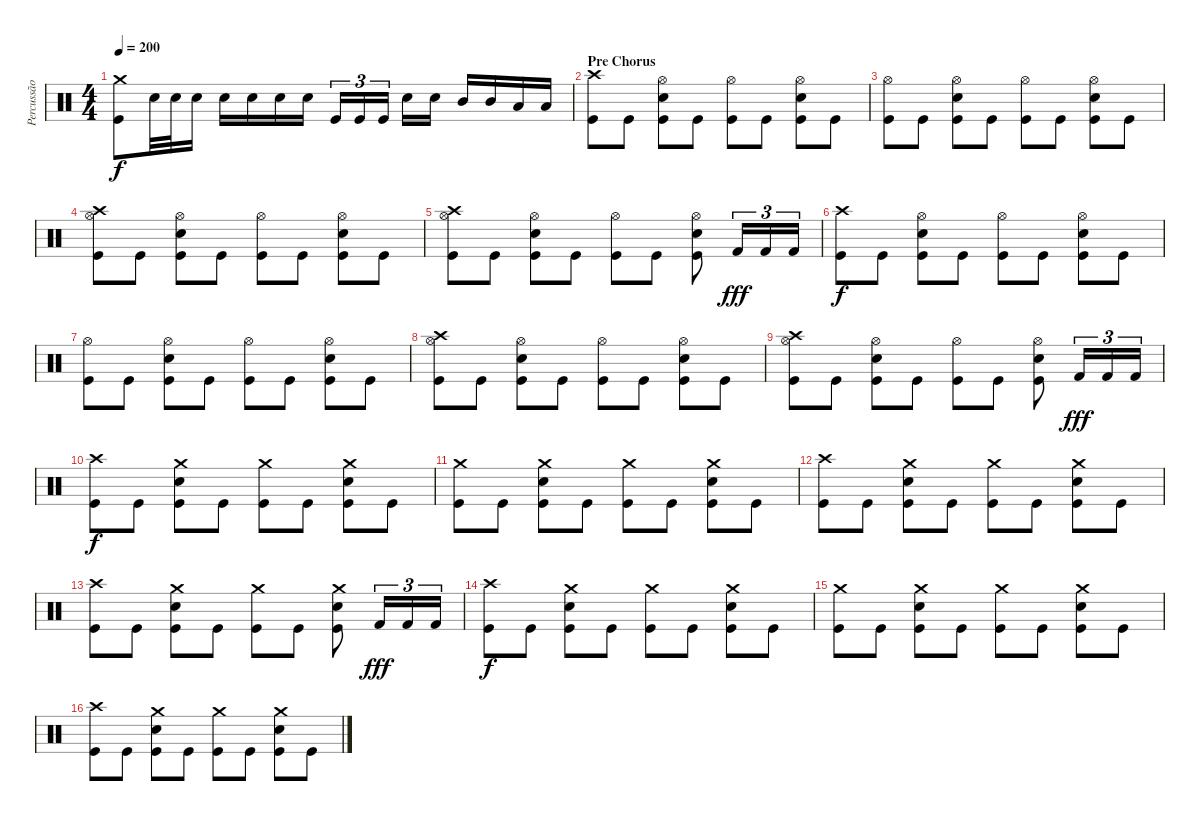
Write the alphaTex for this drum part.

\track ("Percussão" "Percussão") {instrument percussion}
\staff {score}
\articulation defaults
\ts (4 4)
\tempo 200
\clef neutral
\ks c
("Crash medium (hit)" "Kick (hit)").8{dy f} "Electric Snare (hit)".32 "Electric Snare (hit)".32 "Electric Snare (hit)".16 "Electric Snare (hit)".16 "Electric Snare (hit)".16 "Electric Snare (hit)".16 "Electric Snare (hit)".16 "Kick (hit)".16{tu (3 2)} "Kick (hit)".16{tu (3 2)} "Kick (hit)".16{tu (3 2)} "Electric Snare (hit)".16 "Electric Snare (hit)".16 "Mid Tom (hit)".16 "Mid Tom (hit)".16 "Low Tom (hit)".16 "Low Tom (hit)".16 |
\section ("" "Pre Chorus")
("Crash high (hit)" "Kick (hit)").8 "Kick (hit)".8 ("Hi-Hat (open)" "Electric Snare (hit)" "Kick (hit)").8 "Kick (hit)".8 ("Hi-Hat (open)" "Kick (hit)").8 "Kick (hit)".8 ("Hi-Hat (open)" "Electric Snare (hit)" "Kick (hit)").8 "Kick (hit)".8 |
("Hi-Hat (open)" "Kick (hit)").8 "Kick (hit)".8 ("Hi-Hat (open)" "Electric Snare (hit)" "Kick (hit)").8 "Kick (hit)".8 ("Hi-Hat (open)" "Kick (hit)").8 "Kick (hit)".8 ("Hi-Hat (open)" "Electric Snare (hit)" "Kick (hit)").8 "Kick (hit)".8 |
("Crash high (hit)" "Hi-Hat (open)" "Kick (hit)").8 "Kick (hit)".8 ("Hi-Hat (open)" "Electric Snare (hit)" "Kick (hit)").8 "Kick (hit)".8 ("Hi-Hat (open)" "Kick (hit)").8 "Kick (hit)".8 ("Hi-Hat (open)" "Electric Snare (hit)" "Kick (hit)").8 "Kick (hit)".8 |
("Crash high (hit)" "Hi-Hat (open)" "Kick (hit)").8 "Kick (hit)".8 ("Hi-Hat (open)" "Electric Snare (hit)" "Kick (hit)").8 "Kick (hit)".8 ("Hi-Hat (open)" "Kick (hit)").8 "Kick (hit)".8 ("Hi-Hat (open)" "Electric Snare (hit)" "Kick (hit)").8 "Kick (hit) 2".16{tu (3 2) dy fff} "Kick (hit) 2".16{tu (3 2)} "Kick (hit) 2".16{tu (3 2)} |
("Crash high (hit)" "Kick (hit)").8{dy f} "Kick (hit)".8 ("Hi-Hat (open)" "Electric Snare (hit)" "Kick (hit)").8 "Kick (hit)".8 ("Hi-Hat (open)" "Kick (hit)").8 "Kick (hit)".8 ("Hi-Hat (open)" "Electric Snare (hit)" "Kick (hit)").8 "Kick (hit)".8 |
("Hi-Hat (open)" "Kick (hit)").8 "Kick (hit)".8 ("Hi-Hat (open)" "Electric Snare (hit)" "Kick (hit)").8 "Kick (hit)".8 ("Hi-Hat (open)" "Kick (hit)").8 "Kick (hit)".8 ("Hi-Hat (open)" "Electric Snare (hit)" "Kick (hit)").8 "Kick (hit)".8 |
("Crash high (hit)" "Hi-Hat (open)" "Kick (hit)").8 "Kick (hit)".8 ("Hi-Hat (open)" "Electric Snare (hit)" "Kick (hit)").8 "Kick (hit)".8 ("Hi-Hat (open)" "Kick (hit)").8 "Kick (hit)".8 ("Hi-Hat (open)" "Electric Snare (hit)" "Kick (hit)").8 "Kick (hit)".8 |
("Crash high (hit)" "Hi-Hat (open)" "Kick (hit)").8 "Kick (hit)".8 ("Hi-Hat (open)" "Electric Snare (hit)" "Kick (hit)").8 "Kick (hit)".8 ("Hi-Hat (open)" "Kick (hit)").8 "Kick (hit)".8 ("Hi-Hat (open)" "Electric Snare (hit)" "Kick (hit)").8 "Kick (hit) 2".16{tu (3 2) dy fff} "Kick (hit) 2".16{tu (3 2)} "Kick (hit) 2".16{tu (3 2)} |
("Crash high (hit)" "Kick (hit)").8{dy f} "Kick (hit)".8 ("Crash medium (hit)" "Electric Snare (hit)" "Kick (hit)").8 "Kick (hit)".8 ("Crash medium (hit)" "Kick (hit)").8 "Kick (hit)".8 ("Crash medium (hit)" "Electric Snare (hit)" "Kick (hit)").8 "Kick (hit)".8 |
("Crash medium (hit)" "Kick (hit)").8 "Kick (hit)".8 ("Crash medium (hit)" "Electric Snare (hit)" "Kick (hit)").8 "Kick (hit)".8 ("Crash medium (hit)" "Kick (hit)").8 "Kick (hit)".8 ("Crash medium (hit)" "Electric Snare (hit)" "Kick (hit)").8 "Kick (hit)".8 |
("Crash high (hit)" "Kick (hit)").8 "Kick (hit)".8 ("Crash medium (hit)" "Electric Snare (hit)" "Kick (hit)").8 "Kick (hit)".8 ("Crash medium (hit)" "Kick (hit)").8 "Kick (hit)".8 ("Crash medium (hit)" "Electric Snare (hit)" "Kick (hit)").8 "Kick (hit)".8 |
("Crash high (hit)" "Kick (hit)").8 "Kick (hit)".8 ("Crash medium (hit)" "Electric Snare (hit)" "Kick (hit)").8 "Kick (hit)".8 ("Crash medium (hit)" "Kick (hit)").8 "Kick (hit)".8 ("Crash medium (hit)" "Electric Snare (hit)" "Kick (hit)").8 "Kick (hit) 2".16{tu (3 2) dy fff} "Kick (hit) 2".16{tu (3 2)} "Kick (hit) 2".16{tu (3 2)} |
("Crash high (hit)" "Kick (hit)").8{dy f} "Kick (hit)".8 ("Crash medium (hit)" "Electric Snare (hit)" "Kick (hit)").8 "Kick (hit)".8 ("Crash medium (hit)" "Kick (hit)").8 "Kick (hit)".8 ("Crash medium (hit)" "Electric Snare (hit)" "Kick (hit)").8 "Kick (hit)".8 |
("Crash medium (hit)" "Kick (hit)").8 "Kick (hit)".8 ("Crash medium (hit)" "Electric Snare (hit)" "Kick (hit)").8 "Kick (hit)".8 ("Crash medium (hit)" "Kick (hit)").8 "Kick (hit)".8 ("Crash medium (hit)" "Electric Snare (hit)" "Kick (hit)").8 "Kick (hit)".8 |
("Crash high (hit)" "Kick (hit)").8 "Kick (hit)".8 ("Crash medium (hit)" "Electric Snare (hit)" "Kick (hit)").8 "Kick (hit)".8 ("Crash medium (hit)" "Kick (hit)").8 "Kick (hit)".8 ("Crash medium (hit)" "Electric Snare (hit)" "Kick (hit)").8 "Kick (hit)".8
